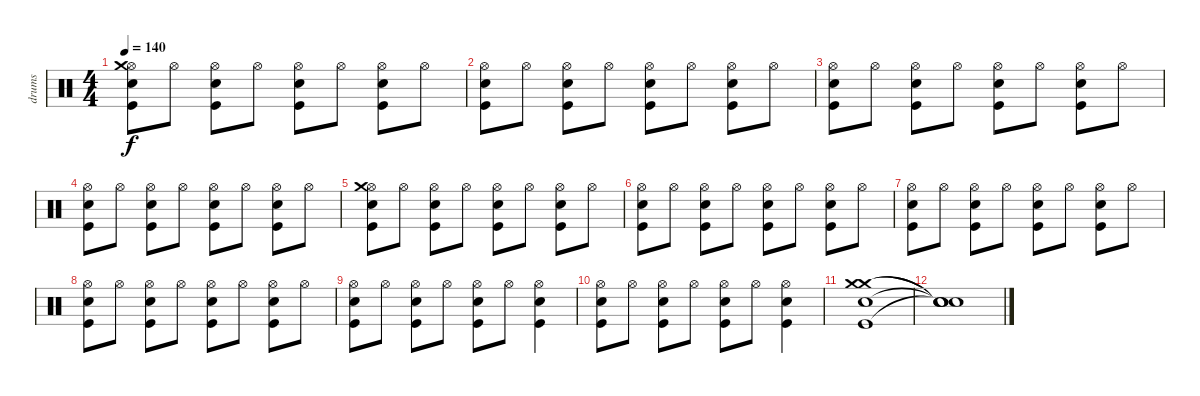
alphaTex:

\track ("drums" "drums") {instrument percussion}
\staff {score}
\articulation defaults
\ts (4 4)
\tempo 140
\clef neutral
\ks c
("Hi-Hat (open)" "Crash medium (hit)" "Snare (hit) 2" "Kick (hit)").8{dy f} "Hi-Hat (open)".8 ("Hi-Hat (open)" "Snare (hit) 2" "Kick (hit)").8 "Hi-Hat (open)".8 ("Hi-Hat (open)" "Snare (hit) 2" "Kick (hit)").8 "Hi-Hat (open)".8 ("Hi-Hat (open)" "Snare (hit) 2" "Kick (hit)").8 "Hi-Hat (open)".8 |
("Hi-Hat (open)" "Snare (hit) 2" "Kick (hit)").8 "Hi-Hat (open)".8 ("Hi-Hat (open)" "Snare (hit) 2" "Kick (hit)").8 "Hi-Hat (open)".8 ("Hi-Hat (open)" "Snare (hit) 2" "Kick (hit)").8 "Hi-Hat (open)".8 ("Hi-Hat (open)" "Snare (hit) 2" "Kick (hit)").8 "Hi-Hat (open)".8 |
("Hi-Hat (open)" "Snare (hit) 2" "Kick (hit)").8 "Hi-Hat (open)".8 ("Hi-Hat (open)" "Snare (hit) 2" "Kick (hit)").8 "Hi-Hat (open)".8 ("Hi-Hat (open)" "Snare (hit) 2" "Kick (hit)").8 "Hi-Hat (open)".8 ("Hi-Hat (open)" "Snare (hit) 2" "Kick (hit)").8 "Hi-Hat (open)".8 |
("Hi-Hat (open)" "Snare (hit) 2" "Kick (hit)").8 "Hi-Hat (open)".8 ("Hi-Hat (open)" "Snare (hit) 2" "Kick (hit)").8 "Hi-Hat (open)".8 ("Hi-Hat (open)" "Snare (hit) 2" "Kick (hit)").8 "Hi-Hat (open)".8 ("Hi-Hat (open)" "Snare (hit) 2" "Kick (hit)").8 "Hi-Hat (open)".8 |
("Hi-Hat (open)" "Crash medium (hit)" "Snare (hit) 2" "Kick (hit)").8 "Hi-Hat (open)".8 ("Hi-Hat (open)" "Snare (hit) 2" "Kick (hit)").8 "Hi-Hat (open)".8 ("Hi-Hat (open)" "Snare (hit) 2" "Kick (hit)").8 "Hi-Hat (open)".8 ("Hi-Hat (open)" "Snare (hit) 2" "Kick (hit)").8 "Hi-Hat (open)".8 |
("Hi-Hat (open)" "Snare (hit) 2" "Kick (hit)").8 "Hi-Hat (open)".8 ("Hi-Hat (open)" "Snare (hit) 2" "Kick (hit)").8 "Hi-Hat (open)".8 ("Hi-Hat (open)" "Snare (hit) 2" "Kick (hit)").8 "Hi-Hat (open)".8 ("Hi-Hat (open)" "Snare (hit) 2" "Kick (hit)").8 "Hi-Hat (open)".8 |
("Hi-Hat (open)" "Snare (hit) 2" "Kick (hit)").8 "Hi-Hat (open)".8 ("Hi-Hat (open)" "Snare (hit) 2" "Kick (hit)").8 "Hi-Hat (open)".8 ("Hi-Hat (open)" "Snare (hit) 2" "Kick (hit)").8 "Hi-Hat (open)".8 ("Hi-Hat (open)" "Snare (hit) 2" "Kick (hit)").8 "Hi-Hat (open)".8 |
("Hi-Hat (open)" "Snare (hit) 2" "Kick (hit)").8 "Hi-Hat (open)".8 ("Hi-Hat (open)" "Snare (hit) 2" "Kick (hit)").8 "Hi-Hat (open)".8 ("Hi-Hat (open)" "Snare (hit) 2" "Kick (hit)").8 "Hi-Hat (open)".8 ("Hi-Hat (open)" "Snare (hit) 2" "Kick (hit)").8 "Hi-Hat (open)".8 |
("Hi-Hat (open)" "Snare (hit) 2" "Kick (hit)").8 "Hi-Hat (open)".8 ("Hi-Hat (open)" "Snare (hit) 2" "Kick (hit)").8 "Hi-Hat (open)".8 ("Hi-Hat (open)" "Snare (hit) 2" "Kick (hit)").8 "Hi-Hat (open)".8 ("Hi-Hat (open)" "Snare (hit) 2" "Kick (hit)").4 |
("Hi-Hat (open)" "Snare (hit) 2" "Kick (hit)").8 "Hi-Hat (open)".8 ("Hi-Hat (open)" "Snare (hit) 2" "Kick (hit)").8 "Hi-Hat (open)".8 ("Hi-Hat (open)" "Snare (hit) 2" "Kick (hit)").8 "Hi-Hat (open)".8 ("Hi-Hat (open)" "Snare (hit) 2" "Kick (hit)").4 |
("Crash medium (hit)" "Crash medium (hit)" "Snare (hit) 2" "Kick (hit)").1 |
("Snare (hit)"{t} "Snare (hit)"{t} "Snare (hit)"{t} "Snare (hit)"{t}).1
